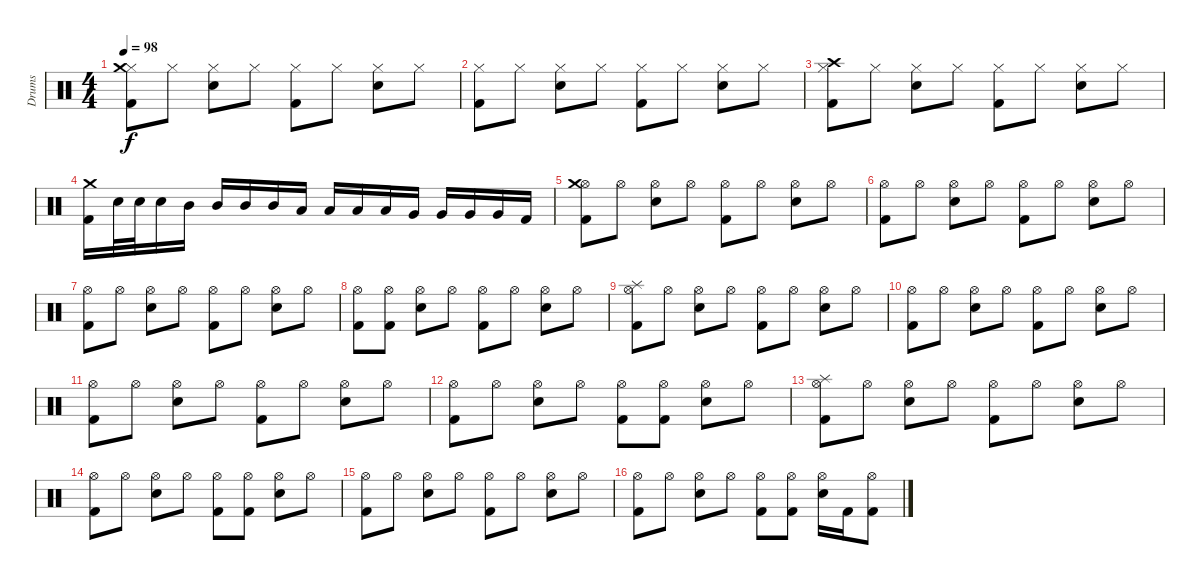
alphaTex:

\track ("Drums" "Drums") {instrument percussion}
\staff {score}
\articulation defaults
\ts (4 4)
\tempo 98
\clef neutral
\ks c
("Hi-Hat (closed)" "Kick (hit) 2" "Crash medium (hit)").8{dy f} "Hi-Hat (closed)".8 ("Hi-Hat (closed)" "Snare (hit) 2").8 "Hi-Hat (closed)".8 ("Hi-Hat (closed)" "Kick (hit) 2").8 "Hi-Hat (closed)".8 ("Hi-Hat (closed)" "Snare (hit) 2").8 "Hi-Hat (closed)".8 |
("Hi-Hat (closed)" "Kick (hit) 2").8 "Hi-Hat (closed)".8 ("Hi-Hat (closed)" "Snare (hit) 2").8 "Hi-Hat (closed)".8 ("Hi-Hat (closed)" "Kick (hit) 2").8 "Hi-Hat (closed)".8 ("Hi-Hat (closed)" "Snare (hit) 2").8 "Hi-Hat (closed)".8 |
("Hi-Hat (closed)" "Kick (hit) 2" "Crash high (hit)").8 "Hi-Hat (closed)".8 ("Hi-Hat (closed)" "Snare (hit) 2").8 "Hi-Hat (closed)".8 ("Hi-Hat (closed)" "Kick (hit) 2").8 "Hi-Hat (closed)".8 ("Hi-Hat (closed)" "Snare (hit) 2").8 "Hi-Hat (closed)".8 |
("Kick (hit) 2" "Crash medium (hit)").16 "Snare (hit) 2".32 "Snare (hit) 2".32 "Snare (hit) 2".16 "Mid Tom (hit)".16 "Mid Tom (hit)".16 "Mid Tom (hit)".16 "Mid Tom (hit)".16 "Low Tom (hit)".16 "Low Tom (hit)".16 "Low Tom (hit)".16 "Low Tom (hit)".16 "Very Low Tom (hit)".16 "Very Low Tom (hit)".16 "Very Low Tom (hit)".16 "Very Low Tom (hit)".16 "Kick (hit) 2".16 |
("Hi-Hat (open)" "Kick (hit) 2" "Crash medium (hit)").8 "Hi-Hat (open)".8 ("Hi-Hat (open)" "Snare (hit) 2").8 "Hi-Hat (open)".8 ("Hi-Hat (open)" "Kick (hit) 2").8 "Hi-Hat (open)".8 ("Hi-Hat (open)" "Snare (hit) 2").8 "Hi-Hat (open)".8 |
("Hi-Hat (open)" "Kick (hit) 2").8 "Hi-Hat (open)".8 ("Hi-Hat (open)" "Snare (hit) 2").8 "Hi-Hat (open)".8 ("Hi-Hat (open)" "Kick (hit) 2").8 "Hi-Hat (open)".8 ("Hi-Hat (open)" "Snare (hit) 2").8 "Hi-Hat (open)".8 |
("Hi-Hat (open)" "Kick (hit) 2").8 "Hi-Hat (open)".8 ("Hi-Hat (open)" "Snare (hit) 2").8 "Hi-Hat (open)".8 ("Hi-Hat (open)" "Kick (hit) 2").8 "Hi-Hat (open)".8 ("Hi-Hat (open)" "Snare (hit) 2").8 "Hi-Hat (open)".8 |
("Hi-Hat (open)" "Kick (hit) 2").8 ("Hi-Hat (open)" "Kick (hit) 2").8 ("Hi-Hat (open)" "Snare (hit) 2").8 "Hi-Hat (open)".8 ("Hi-Hat (open)" "Kick (hit) 2").8 "Hi-Hat (open)".8 ("Hi-Hat (open)" "Snare (hit) 2").8 "Hi-Hat (open)".8 |
("Hi-Hat (open)" "Kick (hit) 2" "Splash (hit)").8 "Hi-Hat (open)".8 ("Hi-Hat (open)" "Snare (hit) 2").8 "Hi-Hat (open)".8 ("Hi-Hat (open)" "Kick (hit) 2").8 "Hi-Hat (open)".8 ("Hi-Hat (open)" "Snare (hit) 2").8 "Hi-Hat (open)".8 |
("Hi-Hat (open)" "Kick (hit) 2").8 "Hi-Hat (open)".8 ("Hi-Hat (open)" "Snare (hit) 2").8 "Hi-Hat (open)".8 ("Hi-Hat (open)" "Kick (hit) 2").8 "Hi-Hat (open)".8 ("Hi-Hat (open)" "Snare (hit) 2").8 "Hi-Hat (open)".8 |
("Hi-Hat (open)" "Kick (hit) 2").8 "Hi-Hat (open)".8 ("Hi-Hat (open)" "Snare (hit) 2").8 "Hi-Hat (open)".8 ("Hi-Hat (open)" "Kick (hit) 2").8 "Hi-Hat (open)".8 ("Hi-Hat (open)" "Snare (hit) 2").8 "Hi-Hat (open)".8 |
("Hi-Hat (open)" "Kick (hit) 2").8 "Hi-Hat (open)".8 ("Hi-Hat (open)" "Snare (hit) 2").8 "Hi-Hat (open)".8 ("Hi-Hat (open)" "Kick (hit) 2").8 ("Hi-Hat (open)" "Kick (hit) 2").8 ("Hi-Hat (open)" "Snare (hit) 2").8 "Hi-Hat (open)".8 |
("Hi-Hat (open)" "Kick (hit) 2" "Splash (hit)").8 "Hi-Hat (open)".8 ("Hi-Hat (open)" "Snare (hit) 2").8 "Hi-Hat (open)".8 ("Hi-Hat (open)" "Kick (hit) 2").8 "Hi-Hat (open)".8 ("Hi-Hat (open)" "Snare (hit) 2").8 "Hi-Hat (open)".8 |
("Hi-Hat (open)" "Kick (hit) 2").8 "Hi-Hat (open)".8 ("Hi-Hat (open)" "Snare (hit) 2").8 "Hi-Hat (open)".8 ("Hi-Hat (open)" "Kick (hit) 2").8 ("Hi-Hat (open)" "Kick (hit) 2").8 ("Hi-Hat (open)" "Snare (hit) 2").8 "Hi-Hat (open)".8 |
("Hi-Hat (open)" "Kick (hit) 2").8 "Hi-Hat (open)".8 ("Hi-Hat (open)" "Snare (hit) 2").8 "Hi-Hat (open)".8 ("Hi-Hat (open)" "Kick (hit) 2").8 "Hi-Hat (open)".8 ("Hi-Hat (open)" "Snare (hit) 2").8 "Hi-Hat (open)".8 |
("Hi-Hat (open)" "Kick (hit) 2").8 "Hi-Hat (open)".8 ("Hi-Hat (open)" "Snare (hit) 2").8 "Hi-Hat (open)".8 ("Hi-Hat (open)" "Kick (hit) 2").8 ("Hi-Hat (open)" "Kick (hit) 2").8 ("Hi-Hat (open)" "Snare (hit) 2").16 "Kick (hit) 2".16 ("Hi-Hat (open)" "Kick (hit) 2").8
